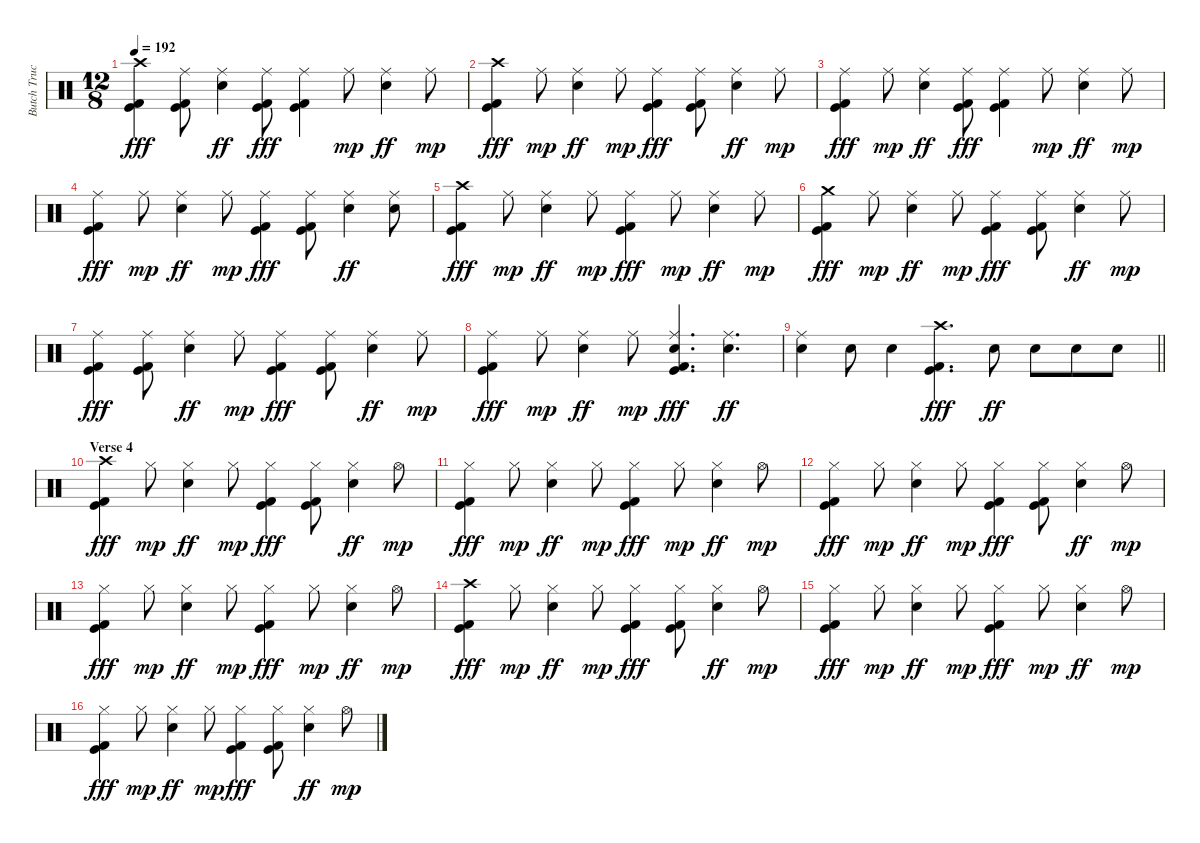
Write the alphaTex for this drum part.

\track ("Butch Trucks, Jaimoe - Drums" "Butch Truc") {instrument percussion}
\staff {score}
\articulation defaults
\ts (12 8)
\tempo 192
\clef neutral
\ks c
("Crash high (hit)" "Kick (hit)" "Kick (hit) 2").4{dy fff} ("Ride (middle)" "Kick (hit)" "Kick (hit) 2").8 ("Ride (middle)" "Snare (hit) 2").4{dy ff} ("Ride (middle)" "Kick (hit)" "Kick (hit) 2").8{dy fff} ("Ride (middle)" "Kick (hit)" "Kick (hit) 2").4 "Ride (middle)".8{dy mp} ("Ride (middle)" "Snare (hit) 2").4{dy ff} "Ride (middle)".8{dy mp} |
("Crash high (hit)" "Kick (hit)" "Kick (hit) 2").4{dy fff} "Ride (middle)".8{dy mp} ("Ride (middle)" "Snare (hit) 2").4{dy ff} "Ride (middle)".8{dy mp} ("Ride (middle)" "Kick (hit)" "Kick (hit) 2").4{dy fff} ("Ride (middle)" "Kick (hit)" "Kick (hit) 2").8 ("Ride (middle)" "Snare (hit) 2").4{dy ff} "Ride (middle)".8{dy mp} |
("Ride (middle)" "Kick (hit)" "Kick (hit) 2").4{dy fff} "Ride (middle)".8{dy mp} ("Ride (middle)" "Snare (hit) 2").4{dy ff} ("Ride (middle)" "Kick (hit)" "Kick (hit) 2").8{dy fff} ("Ride (middle)" "Kick (hit)" "Kick (hit) 2").4 "Ride (middle)".8{dy mp} ("Ride (middle)" "Snare (hit) 2").4{dy ff} "Ride (middle)".8{dy mp} |
("Ride (middle)" "Kick (hit)" "Kick (hit) 2").4{dy fff} "Ride (middle)".8{dy mp} ("Ride (middle)" "Snare (hit) 2").4{dy ff} "Ride (middle)".8{dy mp} ("Ride (middle)" "Kick (hit)" "Kick (hit) 2").4{dy fff} ("Ride (middle)" "Kick (hit)" "Kick (hit) 2").8 ("Ride (middle)" "Snare (hit) 2").4{dy ff} ("Ride (middle)" "Snare (hit) 2").8 |
("Crash high (hit)" "Kick (hit)" "Kick (hit) 2").4{dy fff} "Ride (middle)".8{dy mp} ("Ride (middle)" "Snare (hit) 2").4{dy ff} "Ride (middle)".8{dy mp} ("Ride (middle)" "Kick (hit)" "Kick (hit) 2").4{dy fff} "Ride (middle)".8{dy mp} ("Ride (middle)" "Snare (hit) 2").4{dy ff} "Ride (middle)".8{dy mp} |
("Crash medium (hit)" "Kick (hit)" "Kick (hit) 2").4{dy fff} "Ride (middle)".8{dy mp} ("Ride (middle)" "Snare (hit) 2").4{dy ff} "Ride (middle)".8{dy mp} ("Ride (middle)" "Kick (hit)" "Kick (hit) 2").4{dy fff} ("Ride (middle)" "Kick (hit)" "Kick (hit) 2").8 ("Ride (middle)" "Snare (hit) 2").4{dy ff} "Ride (middle)".8{dy mp} |
("Ride (middle)" "Kick (hit)" "Kick (hit) 2").4{dy fff} ("Ride (middle)" "Kick (hit)" "Kick (hit) 2").8 ("Ride (middle)" "Snare (hit) 2").4{dy ff} "Ride (middle)".8{dy mp} ("Ride (middle)" "Kick (hit)" "Kick (hit) 2").4{dy fff} ("Ride (middle)" "Kick (hit)" "Kick (hit) 2").8 ("Ride (middle)" "Snare (hit) 2").4{dy ff} "Ride (middle)".8{dy mp} |
("Ride (middle)" "Kick (hit)" "Kick (hit) 2").4{dy fff} "Ride (middle)".8{dy mp} ("Ride (middle)" "Snare (hit) 2").4{dy ff} "Ride (middle)".8{dy mp} ("Ride (middle)" "Snare (hit) 2" "Kick (hit)" "Kick (hit) 2").4{d dy fff} ("Ride (middle)" "Snare (hit) 2").4{d dy ff} |
\barLineRight lightlight
("Ride (middle)" "Snare (hit) 2").4 "Snare (hit) 2".8 "Snare (hit) 2".4 ("Crash high (hit)" "Kick (hit)" "Kick (hit) 2").4{d dy fff} "Snare (hit) 2".8{dy ff} "Snare (hit) 2".8 "Snare (hit) 2".8 "Snare (hit) 2".8 |
\section ("" "Verse 4")
("Crash high (hit)" "Kick (hit)" "Kick (hit) 2").4{dy fff} "Hi-Hat (closed)".8{dy mp} ("Hi-Hat (closed)" "Snare (hit) 2").4{dy ff} "Hi-Hat (closed)".8{dy mp} ("Hi-Hat (closed)" "Kick (hit)" "Kick (hit) 2").4{dy fff} ("Hi-Hat (closed)" "Kick (hit)" "Kick (hit) 2").8 ("Hi-Hat (closed)" "Snare (hit) 2").4{dy ff} "Hi-Hat (open)".8{dy mp} |
("Hi-Hat (closed)" "Kick (hit)" "Kick (hit) 2").4{dy fff} "Hi-Hat (closed)".8{dy mp} ("Hi-Hat (closed)" "Snare (hit) 2").4{dy ff} "Hi-Hat (closed)".8{dy mp} ("Hi-Hat (closed)" "Kick (hit)" "Kick (hit) 2").4{dy fff} "Hi-Hat (closed)".8{dy mp} ("Hi-Hat (closed)" "Snare (hit) 2").4{dy ff} "Hi-Hat (open)".8{dy mp} |
("Hi-Hat (closed)" "Kick (hit)" "Kick (hit) 2").4{dy fff} "Hi-Hat (closed)".8{dy mp} ("Hi-Hat (closed)" "Snare (hit) 2").4{dy ff} "Hi-Hat (closed)".8{dy mp} ("Hi-Hat (closed)" "Kick (hit)" "Kick (hit) 2").4{dy fff} ("Hi-Hat (closed)" "Kick (hit)" "Kick (hit) 2").8 ("Hi-Hat (closed)" "Snare (hit) 2").4{dy ff} "Hi-Hat (open)".8{dy mp} |
("Hi-Hat (closed)" "Kick (hit)" "Kick (hit) 2").4{dy fff} "Hi-Hat (closed)".8{dy mp} ("Hi-Hat (closed)" "Snare (hit) 2").4{dy ff} "Hi-Hat (closed)".8{dy mp} ("Hi-Hat (closed)" "Kick (hit)" "Kick (hit) 2").4{dy fff} "Hi-Hat (closed)".8{dy mp} ("Hi-Hat (closed)" "Snare (hit) 2").4{dy ff} "Hi-Hat (open)".8{dy mp} |
("Crash high (hit)" "Kick (hit)" "Kick (hit) 2").4{dy fff} "Hi-Hat (closed)".8{dy mp} ("Hi-Hat (closed)" "Snare (hit) 2").4{dy ff} "Hi-Hat (closed)".8{dy mp} ("Hi-Hat (closed)" "Kick (hit)" "Kick (hit) 2").4{dy fff} ("Hi-Hat (closed)" "Kick (hit)" "Kick (hit) 2").8 ("Hi-Hat (closed)" "Snare (hit) 2").4{dy ff} "Hi-Hat (open)".8{dy mp} |
("Hi-Hat (closed)" "Kick (hit)" "Kick (hit) 2").4{dy fff} "Hi-Hat (closed)".8{dy mp} ("Hi-Hat (closed)" "Snare (hit) 2").4{dy ff} "Hi-Hat (closed)".8{dy mp} ("Hi-Hat (closed)" "Kick (hit)" "Kick (hit) 2").4{dy fff} "Hi-Hat (closed)".8{dy mp} ("Hi-Hat (closed)" "Snare (hit) 2").4{dy ff} "Hi-Hat (open)".8{dy mp} |
("Hi-Hat (closed)" "Kick (hit)" "Kick (hit) 2").4{dy fff} "Hi-Hat (closed)".8{dy mp} ("Hi-Hat (closed)" "Snare (hit) 2").4{dy ff} "Hi-Hat (closed)".8{dy mp} ("Hi-Hat (closed)" "Kick (hit)" "Kick (hit) 2").4{dy fff} ("Hi-Hat (closed)" "Kick (hit)" "Kick (hit) 2").8 ("Hi-Hat (closed)" "Snare (hit) 2").4{dy ff} "Hi-Hat (open)".8{dy mp}
